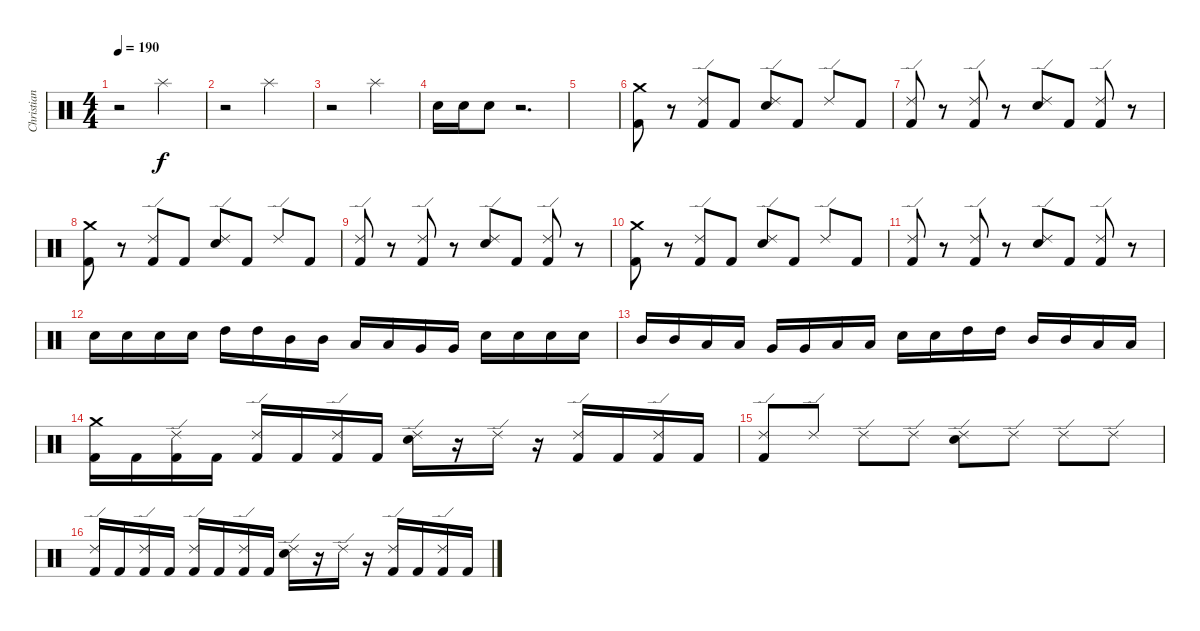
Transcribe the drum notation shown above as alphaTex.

\track ("Christian" "Christian") {instrument percussion}
\staff {score}
\articulation defaults
\ts (4 4)
\tempo 190
\clef neutral
\ks c
r.2{dy f} "Splash (hit)".2 |
r.2 "Splash (hit)".2 |
r.2 "Splash (hit)".2 |
"Electric Snare (hit)".16 "Electric Snare (hit)".16 "Electric Snare (hit)".8 r.2{d} |
|
("Crash medium (hit)" "Kick (hit) 2").8 r.8 ("Ride (edge) 2" "Kick (hit) 2").8 "Kick (hit) 2".8 ("Ride (edge) 2" "Electric Snare (hit)").8 "Kick (hit) 2".8 "Ride (edge) 2".8 "Kick (hit) 2".8 |
("Ride (edge) 2" "Kick (hit) 2").8 r.8 ("Ride (edge) 2" "Kick (hit) 2").8 r.8 ("Ride (edge) 2" "Electric Snare (hit)").8 "Kick (hit) 2".8 ("Ride (edge) 2" "Kick (hit) 2").8 r.8 |
("Crash medium (hit)" "Kick (hit) 2").8 r.8 ("Ride (edge) 2" "Kick (hit) 2").8 "Kick (hit) 2".8 ("Ride (edge) 2" "Electric Snare (hit)").8 "Kick (hit) 2".8 "Ride (edge) 2".8 "Kick (hit) 2".8 |
("Ride (edge) 2" "Kick (hit) 2").8 r.8 ("Ride (edge) 2" "Kick (hit) 2").8 r.8 ("Ride (edge) 2" "Electric Snare (hit)").8 "Kick (hit) 2".8 ("Ride (edge) 2" "Kick (hit) 2").8 r.8 |
("Crash medium (hit)" "Kick (hit) 2").8 r.8 ("Ride (edge) 2" "Kick (hit) 2").8 "Kick (hit) 2".8 ("Ride (edge) 2" "Electric Snare (hit)").8 "Kick (hit) 2".8 "Ride (edge) 2".8 "Kick (hit) 2".8 |
("Ride (edge) 2" "Kick (hit) 2").8 r.8 ("Ride (edge) 2" "Kick (hit) 2").8 r.8 ("Ride (edge) 2" "Electric Snare (hit)").8 "Kick (hit) 2".8 ("Ride (edge) 2" "Kick (hit) 2").8 r.8 |
"Electric Snare (hit)".16 "Electric Snare (hit)".16 "Electric Snare (hit)".16 "Electric Snare (hit)".16 "High Tom (hit)".16 "High Tom (hit)".16 "Mid Tom (hit)".16 "Mid Tom (hit)".16 "Low Tom (hit)".16 "Low Tom (hit)".16 "Very Low Tom (hit)".16 "Very Low Tom (hit)".16 "Electric Snare (hit)".16 "Electric Snare (hit)".16 "Electric Snare (hit)".16 "Electric Snare (hit)".16 |
"Mid Tom (hit)".16 "Mid Tom (hit)".16 "Low Tom (hit)".16 "Low Tom (hit)".16 "Very Low Tom (hit)".16 "Very Low Tom (hit)".16 "Low Floor Tom (hit)".16 "Low Floor Tom (hit)".16 "Electric Snare (hit)".16 "Electric Snare (hit)".16 "High Tom (hit)".16 "High Tom (hit)".16 "Mid Tom (hit)".16 "Mid Tom (hit)".16 "Low Tom (hit)".16 "Low Tom (hit)".16 |
("Crash medium (hit)" "Kick (hit) 2").16 "Kick (hit) 2".16 ("Ride (edge) 2" "Kick (hit) 2").16 "Kick (hit) 2".16 ("Ride (edge) 2" "Kick (hit) 2").16 "Kick (hit) 2".16 ("Ride (edge) 2" "Kick (hit) 2").16 "Kick (hit) 2".16 ("Ride (edge) 2" "Electric Snare (hit)").16 r.16 "Ride (edge) 2".16 r.16 ("Ride (edge) 2" "Kick (hit) 2").16 "Kick (hit) 2".16 ("Ride (edge) 2" "Kick (hit) 2").16 "Kick (hit) 2".16 |
("Ride (edge) 2" "Kick (hit) 2").8 "Ride (edge) 2".8 "Ride (edge) 2".8 "Ride (edge) 2".8 ("Ride (edge) 2" "Electric Snare (hit)").8 "Ride (edge) 2".8 "Ride (edge) 2".8 "Ride (edge) 2".8 |
("Ride (edge) 2" "Kick (hit) 2").16 "Kick (hit) 2".16 ("Ride (edge) 2" "Kick (hit) 2").16 "Kick (hit) 2".16 ("Ride (edge) 2" "Kick (hit) 2").16 "Kick (hit) 2".16 ("Ride (edge) 2" "Kick (hit) 2").16 "Kick (hit) 2".16 ("Ride (edge) 2" "Electric Snare (hit)").16 r.16 "Ride (edge) 2".16 r.16 ("Ride (edge) 2" "Kick (hit) 2").16 "Kick (hit) 2".16 ("Ride (edge) 2" "Kick (hit) 2").16 "Kick (hit) 2".16
